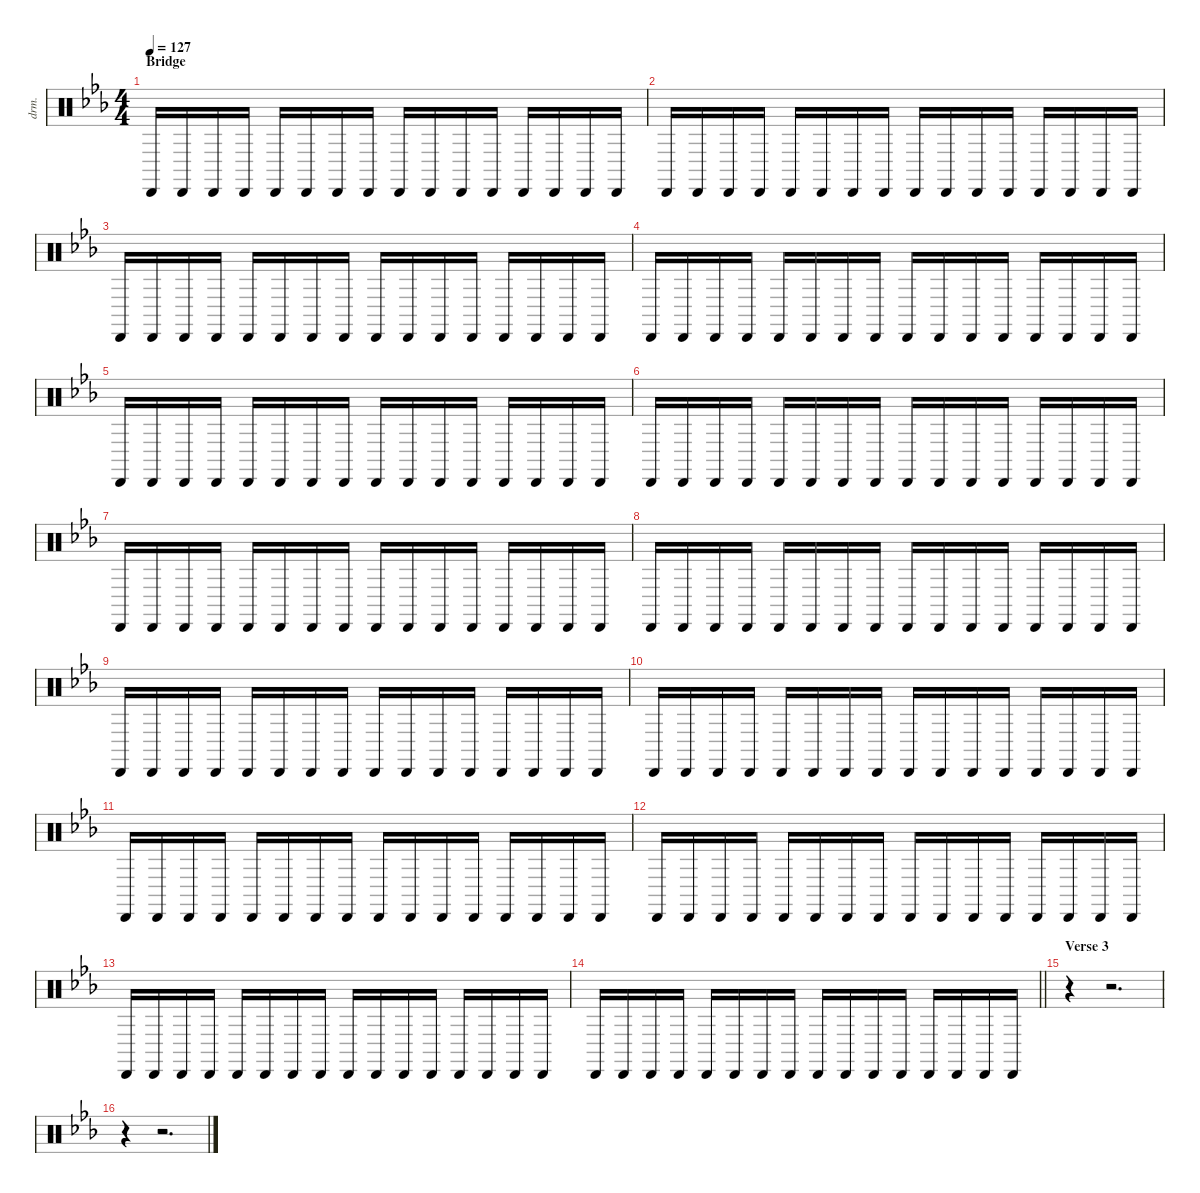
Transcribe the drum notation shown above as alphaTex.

\defaultSystemsLayout 4
\hideDynamics
\bracketExtendMode nobrackets
\otherSystemsTrackNameOrientation horizontal
\track ("Maracas" "drm.") {instrument percussion}
\staff {score}
\articulation defaults
\ts (4 4)
\section ("" "Bridge")
\tempo 127
\clef neutral
\ks eb "Cabasa (hit)"{acc forcenatural}.16{dy mf} "Cabasa (hit)"{acc forcenatural}.16{dy p} "Cabasa (hit)"{acc forcenatural}.16 "Cabasa (hit)"{acc forcenatural}.16 "Cabasa (hit)"{acc forcenatural}.16{dy mf} "Cabasa (hit)"{acc forcenatural}.16{dy p} "Cabasa (hit)"{acc forcenatural}.16 "Cabasa (hit)"{acc forcenatural}.16 "Cabasa (hit)"{acc forcenatural}.16{dy mf} "Cabasa (hit)"{acc forcenatural}.16{dy p} "Cabasa (hit)"{acc forcenatural}.16 "Cabasa (hit)"{acc forcenatural}.16 "Cabasa (hit)"{acc forcenatural}.16{dy mf} "Cabasa (hit)"{acc forcenatural}.16{dy p} "Cabasa (hit)"{acc forcenatural}.16 "Cabasa (hit)"{acc forcenatural}.16
|
"Cabasa (hit)"{acc forcenatural}.16{dy mf} "Cabasa (hit)"{acc forcenatural}.16{dy p} "Cabasa (hit)"{acc forcenatural}.16 "Cabasa (hit)"{acc forcenatural}.16 "Cabasa (hit)"{acc forcenatural}.16{dy mf} "Cabasa (hit)"{acc forcenatural}.16{dy p} "Cabasa (hit)"{acc forcenatural}.16 "Cabasa (hit)"{acc forcenatural}.16 "Cabasa (hit)"{acc forcenatural}.16{dy mf} "Cabasa (hit)"{acc forcenatural}.16{dy p} "Cabasa (hit)"{acc forcenatural}.16 "Cabasa (hit)"{acc forcenatural}.16 "Cabasa (hit)"{acc forcenatural}.16{dy mf} "Cabasa (hit)"{acc forcenatural}.16{dy p} "Cabasa (hit)"{acc forcenatural}.16 "Cabasa (hit)"{acc forcenatural}.16 |
"Cabasa (hit)"{acc forcenatural}.16{dy mf} "Cabasa (hit)"{acc forcenatural}.16{dy p} "Cabasa (hit)"{acc forcenatural}.16 "Cabasa (hit)"{acc forcenatural}.16 "Cabasa (hit)"{acc forcenatural}.16{dy mf} "Cabasa (hit)"{acc forcenatural}.16{dy p} "Cabasa (hit)"{acc forcenatural}.16 "Cabasa (hit)"{acc forcenatural}.16 "Cabasa (hit)"{acc forcenatural}.16{dy mf} "Cabasa (hit)"{acc forcenatural}.16{dy p} "Cabasa (hit)"{acc forcenatural}.16 "Cabasa (hit)"{acc forcenatural}.16 "Cabasa (hit)"{acc forcenatural}.16{dy mf} "Cabasa (hit)"{acc forcenatural}.16{dy p} "Cabasa (hit)"{acc forcenatural}.16 "Cabasa (hit)"{acc forcenatural}.16 |
"Cabasa (hit)"{acc forcenatural}.16{dy mf} "Cabasa (hit)"{acc forcenatural}.16{dy p} "Cabasa (hit)"{acc forcenatural}.16 "Cabasa (hit)"{acc forcenatural}.16 "Cabasa (hit)"{acc forcenatural}.16{dy mf} "Cabasa (hit)"{acc forcenatural}.16{dy p} "Cabasa (hit)"{acc forcenatural}.16 "Cabasa (hit)"{acc forcenatural}.16 "Cabasa (hit)"{acc forcenatural}.16{dy mf} "Cabasa (hit)"{acc forcenatural}.16{dy p} "Cabasa (hit)"{acc forcenatural}.16 "Cabasa (hit)"{acc forcenatural}.16 "Cabasa (hit)"{acc forcenatural}.16{dy mf} "Cabasa (hit)"{acc forcenatural}.16{dy p} "Cabasa (hit)"{acc forcenatural}.16 "Cabasa (hit)"{acc forcenatural}.16 |
"Cabasa (hit)"{acc forcenatural}.16{dy mf} "Cabasa (hit)"{acc forcenatural}.16{dy p} "Cabasa (hit)"{acc forcenatural}.16 "Cabasa (hit)"{acc forcenatural}.16 "Cabasa (hit)"{acc forcenatural}.16{dy mf} "Cabasa (hit)"{acc forcenatural}.16{dy p} "Cabasa (hit)"{acc forcenatural}.16 "Cabasa (hit)"{acc forcenatural}.16 "Cabasa (hit)"{acc forcenatural}.16{dy mf} "Cabasa (hit)"{acc forcenatural}.16{dy p} "Cabasa (hit)"{acc forcenatural}.16 "Cabasa (hit)"{acc forcenatural}.16 "Cabasa (hit)"{acc forcenatural}.16{dy mf} "Cabasa (hit)"{acc forcenatural}.16{dy p} "Cabasa (hit)"{acc forcenatural}.16 "Cabasa (hit)"{acc forcenatural}.16 |
"Cabasa (hit)"{acc forcenatural}.16{dy mf} "Cabasa (hit)"{acc forcenatural}.16{dy p} "Cabasa (hit)"{acc forcenatural}.16 "Cabasa (hit)"{acc forcenatural}.16 "Cabasa (hit)"{acc forcenatural}.16{dy mf} "Cabasa (hit)"{acc forcenatural}.16{dy p} "Cabasa (hit)"{acc forcenatural}.16 "Cabasa (hit)"{acc forcenatural}.16 "Cabasa (hit)"{acc forcenatural}.16{dy mf} "Cabasa (hit)"{acc forcenatural}.16{dy p} "Cabasa (hit)"{acc forcenatural}.16 "Cabasa (hit)"{acc forcenatural}.16 "Cabasa (hit)"{acc forcenatural}.16{dy mf} "Cabasa (hit)"{acc forcenatural}.16{dy p} "Cabasa (hit)"{acc forcenatural}.16 "Cabasa (hit)"{acc forcenatural}.16 |
"Cabasa (hit)"{acc forcenatural}.16{dy mf} "Cabasa (hit)"{acc forcenatural}.16{dy p} "Cabasa (hit)"{acc forcenatural}.16 "Cabasa (hit)"{acc forcenatural}.16 "Cabasa (hit)"{acc forcenatural}.16{dy mf} "Cabasa (hit)"{acc forcenatural}.16{dy p} "Cabasa (hit)"{acc forcenatural}.16 "Cabasa (hit)"{acc forcenatural}.16 "Cabasa (hit)"{acc forcenatural}.16{dy mf} "Cabasa (hit)"{acc forcenatural}.16{dy p} "Cabasa (hit)"{acc forcenatural}.16 "Cabasa (hit)"{acc forcenatural}.16 "Cabasa (hit)"{acc forcenatural}.16{dy mf} "Cabasa (hit)"{acc forcenatural}.16{dy p} "Cabasa (hit)"{acc forcenatural}.16 "Cabasa (hit)"{acc forcenatural}.16 |
"Cabasa (hit)"{acc forcenatural}.16{dy mf} "Cabasa (hit)"{acc forcenatural}.16{dy p} "Cabasa (hit)"{acc forcenatural}.16 "Cabasa (hit)"{acc forcenatural}.16 "Cabasa (hit)"{acc forcenatural}.16{dy mf} "Cabasa (hit)"{acc forcenatural}.16{dy p} "Cabasa (hit)"{acc forcenatural}.16 "Cabasa (hit)"{acc forcenatural}.16 "Cabasa (hit)"{acc forcenatural}.16{dy mf} "Cabasa (hit)"{acc forcenatural}.16{dy p} "Cabasa (hit)"{acc forcenatural}.16 "Cabasa (hit)"{acc forcenatural}.16 "Cabasa (hit)"{acc forcenatural}.16{dy mf} "Cabasa (hit)"{acc forcenatural}.16{dy p} "Cabasa (hit)"{acc forcenatural}.16 "Cabasa (hit)"{acc forcenatural}.16 |
"Cabasa (hit)"{acc forcenatural}.16{dy mf} "Cabasa (hit)"{acc forcenatural}.16{dy p} "Cabasa (hit)"{acc forcenatural}.16 "Cabasa (hit)"{acc forcenatural}.16 "Cabasa (hit)"{acc forcenatural}.16{dy mf} "Cabasa (hit)"{acc forcenatural}.16{dy p} "Cabasa (hit)"{acc forcenatural}.16 "Cabasa (hit)"{acc forcenatural}.16 "Cabasa (hit)"{acc forcenatural}.16{dy mf} "Cabasa (hit)"{acc forcenatural}.16{dy p} "Cabasa (hit)"{acc forcenatural}.16 "Cabasa (hit)"{acc forcenatural}.16 "Cabasa (hit)"{acc forcenatural}.16{dy mf} "Cabasa (hit)"{acc forcenatural}.16{dy p} "Cabasa (hit)"{acc forcenatural}.16 "Cabasa (hit)"{acc forcenatural}.16 |
"Cabasa (hit)"{acc forcenatural}.16{dy mf} "Cabasa (hit)"{acc forcenatural}.16{dy p} "Cabasa (hit)"{acc forcenatural}.16 "Cabasa (hit)"{acc forcenatural}.16 "Cabasa (hit)"{acc forcenatural}.16{dy mf} "Cabasa (hit)"{acc forcenatural}.16{dy p} "Cabasa (hit)"{acc forcenatural}.16 "Cabasa (hit)"{acc forcenatural}.16 "Cabasa (hit)"{acc forcenatural}.16{dy mf} "Cabasa (hit)"{acc forcenatural}.16{dy p} "Cabasa (hit)"{acc forcenatural}.16 "Cabasa (hit)"{acc forcenatural}.16 "Cabasa (hit)"{acc forcenatural}.16{dy mf} "Cabasa (hit)"{acc forcenatural}.16{dy p} "Cabasa (hit)"{acc forcenatural}.16 "Cabasa (hit)"{acc forcenatural}.16 |
"Cabasa (hit)"{acc forcenatural}.16{dy mf} "Cabasa (hit)"{acc forcenatural}.16{dy p} "Cabasa (hit)"{acc forcenatural}.16 "Cabasa (hit)"{acc forcenatural}.16 "Cabasa (hit)"{acc forcenatural}.16{dy mf} "Cabasa (hit)"{acc forcenatural}.16{dy p} "Cabasa (hit)"{acc forcenatural}.16 "Cabasa (hit)"{acc forcenatural}.16 "Cabasa (hit)"{acc forcenatural}.16{dy mf} "Cabasa (hit)"{acc forcenatural}.16{dy p} "Cabasa (hit)"{acc forcenatural}.16 "Cabasa (hit)"{acc forcenatural}.16 "Cabasa (hit)"{acc forcenatural}.16{dy mf} "Cabasa (hit)"{acc forcenatural}.16{dy p} "Cabasa (hit)"{acc forcenatural}.16 "Cabasa (hit)"{acc forcenatural}.16 |
"Cabasa (hit)"{acc forcenatural}.16{dy mf} "Cabasa (hit)"{acc forcenatural}.16{dy p} "Cabasa (hit)"{acc forcenatural}.16 "Cabasa (hit)"{acc forcenatural}.16 "Cabasa (hit)"{acc forcenatural}.16{dy mf} "Cabasa (hit)"{acc forcenatural}.16{dy p} "Cabasa (hit)"{acc forcenatural}.16 "Cabasa (hit)"{acc forcenatural}.16 "Cabasa (hit)"{acc forcenatural}.16{dy mf} "Cabasa (hit)"{acc forcenatural}.16{dy p} "Cabasa (hit)"{acc forcenatural}.16 "Cabasa (hit)"{acc forcenatural}.16 "Cabasa (hit)"{acc forcenatural}.16{dy mf} "Cabasa (hit)"{acc forcenatural}.16{dy p} "Cabasa (hit)"{acc forcenatural}.16 "Cabasa (hit)"{acc forcenatural}.16 |
"Cabasa (hit)"{acc forcenatural}.16{dy mf} "Cabasa (hit)"{acc forcenatural}.16{dy p} "Cabasa (hit)"{acc forcenatural}.16 "Cabasa (hit)"{acc forcenatural}.16 "Cabasa (hit)"{acc forcenatural}.16{dy mf} "Cabasa (hit)"{acc forcenatural}.16{dy p} "Cabasa (hit)"{acc forcenatural}.16 "Cabasa (hit)"{acc forcenatural}.16 "Cabasa (hit)"{acc forcenatural}.16{dy mf} "Cabasa (hit)"{acc forcenatural}.16{dy p} "Cabasa (hit)"{acc forcenatural}.16 "Cabasa (hit)"{acc forcenatural}.16 "Cabasa (hit)"{acc forcenatural}.16{dy mf} "Cabasa (hit)"{acc forcenatural}.16{dy p} "Cabasa (hit)"{acc forcenatural}.16 "Cabasa (hit)"{acc forcenatural}.16 |
\barLineRight lightlight "Cabasa (hit)"{acc forcenatural}.16{dy mf} "Cabasa (hit)"{acc forcenatural}.16{dy p} "Cabasa (hit)"{acc forcenatural}.16 "Cabasa (hit)"{acc forcenatural}.16 "Cabasa (hit)"{acc forcenatural}.16{dy mf} "Cabasa (hit)"{acc forcenatural}.16{dy p} "Cabasa (hit)"{acc forcenatural}.16 "Cabasa (hit)"{acc forcenatural}.16 "Cabasa (hit)"{acc forcenatural}.16{dy mf} "Cabasa (hit)"{acc forcenatural}.16{dy p} "Cabasa (hit)"{acc forcenatural}.16 "Cabasa (hit)"{acc forcenatural}.16 "Cabasa (hit)"{acc forcenatural}.16{dy mf} "Cabasa (hit)"{acc forcenatural}.16{dy p} "Cabasa (hit)"{acc forcenatural}.16 "Cabasa (hit)"{acc forcenatural}.16
|
\section ("" "Verse 3")
r.4 r.2{d} |
r.4 r.2{d}
